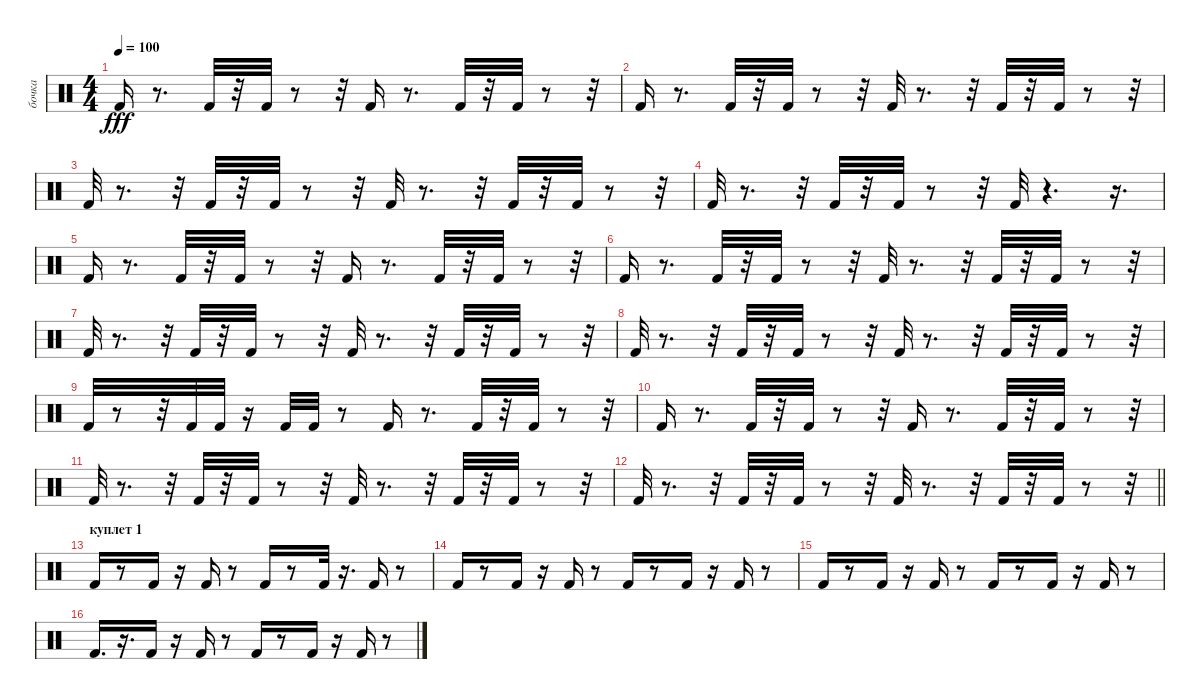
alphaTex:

\track ("бочка" "бочка") {instrument percussion}
\staff {score}
\articulation defaults
\ts (4 4)
\tempo 100
\clef neutral
\ks c "Kick (hit) 2".16{dy fff}
r.8{d} "Kick (hit) 2".32 r.32 "Kick (hit) 2".32 r.8 r.32 "Kick (hit) 2".16 r.8{d} "Kick (hit) 2".32 r.32 "Kick (hit) 2".32 r.8 r.32 |
"Kick (hit) 2".16 r.8{d} "Kick (hit) 2".32 r.32 "Kick (hit) 2".32 r.8 r.32 "Kick (hit) 2".32 r.8{d} r.32 "Kick (hit) 2".32 r.32 "Kick (hit) 2".32 r.8 r.32 |
"Kick (hit) 2".32 r.8{d} r.32 "Kick (hit) 2".32 r.32 "Kick (hit) 2".32 r.8 r.32 "Kick (hit) 2".32 r.8{d} r.32 "Kick (hit) 2".32 r.32 "Kick (hit) 2".32 r.8 r.32 |
"Kick (hit) 2".32 r.8{d} r.32 "Kick (hit) 2".32 r.32 "Kick (hit) 2".32 r.8 r.32 "Kick (hit) 2".32 r.4{d} r.16{d} |
"Kick (hit) 2".16 r.8{d} "Kick (hit) 2".32 r.32 "Kick (hit) 2".32 r.8 r.32 "Kick (hit) 2".16 r.8{d} "Kick (hit) 2".32 r.32 "Kick (hit) 2".32 r.8 r.32 |
"Kick (hit) 2".16 r.8{d} "Kick (hit) 2".32 r.32 "Kick (hit) 2".32 r.8 r.32 "Kick (hit) 2".32 r.8{d} r.32 "Kick (hit) 2".32 r.32 "Kick (hit) 2".32 r.8 r.32 |
"Kick (hit) 2".32 r.8{d} r.32 "Kick (hit) 2".32 r.32 "Kick (hit) 2".32 r.8 r.32 "Kick (hit) 2".32 r.8{d} r.32 "Kick (hit) 2".32 r.32 "Kick (hit) 2".32 r.8 r.32 |
"Kick (hit) 2".32 r.8{d} r.32 "Kick (hit) 2".32 r.32 "Kick (hit) 2".32 r.8 r.32 "Kick (hit) 2".32 r.8{d} r.32 "Kick (hit) 2".32 r.32 "Kick (hit) 2".32 r.8 r.32 |
"Kick (hit) 2".32 r.8 r.32 "Kick (hit) 2".32 "Kick (hit) 2".32 r.16 "Kick (hit) 2".32 "Kick (hit) 2".32 r.8 "Kick (hit) 2".16 r.8{d} "Kick (hit) 2".32 r.32 "Kick (hit) 2".32 r.8 r.32 |
"Kick (hit) 2".16 r.8{d} "Kick (hit) 2".32 r.32 "Kick (hit) 2".32 r.8 r.32 "Kick (hit) 2".16 r.8{d} "Kick (hit) 2".32 r.32 "Kick (hit) 2".32 r.8 r.32 |
"Kick (hit) 2".32 r.8{d} r.32 "Kick (hit) 2".32 r.32 "Kick (hit) 2".32 r.8 r.32 "Kick (hit) 2".32 r.8{d} r.32 "Kick (hit) 2".32 r.32 "Kick (hit) 2".32 r.8 r.32 |
\barLineRight lightlight "Kick (hit) 2".32
r.8{d} r.32 "Kick (hit) 2".32 r.32 "Kick (hit) 2".32 r.8 r.32 "Kick (hit) 2".32 r.8{d} r.32 "Kick (hit) 2".32 r.32 "Kick (hit) 2".32 r.8 r.32 |
\section ("" "куплет 1")
"Kick (hit) 2".16 r.8 "Kick (hit) 2".16 r.16 "Kick (hit) 2".16 r.8 "Kick (hit) 2".16 r.8 "Kick (hit) 2".32 r.16{d} "Kick (hit) 2".16 r.8 |
"Kick (hit) 2".16 r.8 "Kick (hit) 2".16 r.16 "Kick (hit) 2".16 r.8 "Kick (hit) 2".16 r.8 "Kick (hit) 2".16 r.16 "Kick (hit) 2".16 r.8 |
"Kick (hit) 2".16 r.8 "Kick (hit) 2".16 r.16 "Kick (hit) 2".16 r.8 "Kick (hit) 2".16 r.8 "Kick (hit) 2".16 r.16 "Kick (hit) 2".16 r.8 |
"Kick (hit) 2".16{d} r.16{d} "Kick (hit) 2".16 r.16 "Kick (hit) 2".16 r.8 "Kick (hit) 2".16 r.8 "Kick (hit) 2".16 r.16 "Kick (hit) 2".16 r.8
